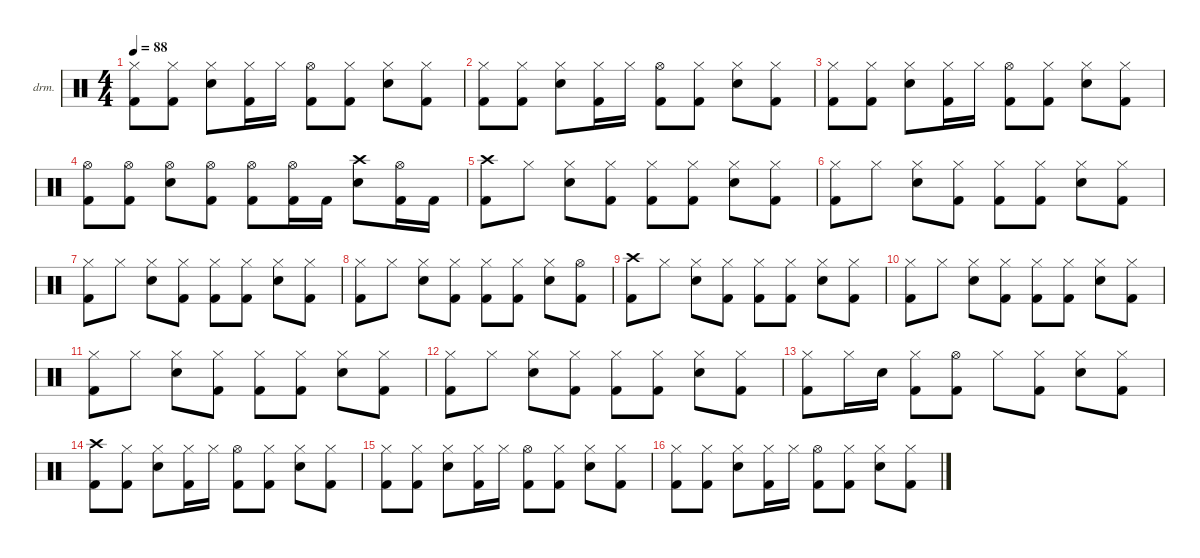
\defaultSystemsLayout 4
\hideDynamics
\bracketExtendMode nobrackets
\firstSystemTrackNameOrientation horizontal
\otherSystemsTrackNameOrientation horizontal
\track ("Drums" "drm.") {instrument percussion}
\staff {score}
\articulation defaults
\ts (4 4)
\tempo 88
\clef neutral
\ks c
("Hi-Hat (closed)" "Kick (hit) 2").8{dy f} ("Hi-Hat (closed)" "Kick (hit) 2").8 ("Hi-Hat (closed)" "Snare (hit) 2").8 ("Hi-Hat (closed)" "Kick (hit) 2").16 "Hi-Hat (closed)".16 ("Hi-Hat (open)" "Kick (hit) 2").8 ("Hi-Hat (closed)" "Kick (hit) 2").8 ("Hi-Hat (closed)" "Snare (hit) 2").8 ("Hi-Hat (closed)" "Kick (hit) 2").8 |
("Hi-Hat (closed)" "Kick (hit) 2").8 ("Hi-Hat (closed)" "Kick (hit) 2").8 ("Hi-Hat (closed)" "Snare (hit) 2").8 ("Hi-Hat (closed)" "Kick (hit) 2").16 "Hi-Hat (closed)".16 ("Hi-Hat (open)" "Kick (hit) 2").8 ("Hi-Hat (closed)" "Kick (hit) 2").8 ("Hi-Hat (closed)" "Snare (hit) 2").8 ("Hi-Hat (closed)" "Kick (hit) 2").8 |
("Hi-Hat (closed)" "Kick (hit) 2").8 ("Hi-Hat (closed)" "Kick (hit) 2").8 ("Hi-Hat (closed)" "Snare (hit) 2").8 ("Hi-Hat (closed)" "Kick (hit) 2").16 "Hi-Hat (closed)".16 ("Hi-Hat (open)" "Kick (hit) 2").8 ("Hi-Hat (closed)" "Kick (hit) 2").8 ("Hi-Hat (closed)" "Snare (hit) 2").8 ("Hi-Hat (closed)" "Kick (hit) 2").8 |
("Hi-Hat (open)" "Kick (hit) 2").8 ("Hi-Hat (open)" "Kick (hit) 2").8 ("Hi-Hat (open)" "Snare (hit) 2").8 ("Hi-Hat (open)" "Kick (hit) 2").8 ("Hi-Hat (open)" "Kick (hit) 2").8 ("Hi-Hat (open)" "Kick (hit) 2").16 "Kick (hit) 2".16 ("Crash high (hit)" "Snare (hit) 2").8 ("Hi-Hat (open)" "Kick (hit) 2").16 "Kick (hit) 2".16 |
("Crash high (hit)" "Kick (hit) 2").8 "Hi-Hat (closed)".8 ("Hi-Hat (closed)" "Snare (hit) 2").8 ("Hi-Hat (closed)" "Kick (hit) 2").8 ("Hi-Hat (closed)" "Kick (hit) 2").8 ("Hi-Hat (closed)" "Kick (hit) 2").8 ("Hi-Hat (closed)" "Snare (hit) 2").8 ("Hi-Hat (closed)" "Kick (hit) 2").8 |
("Hi-Hat (closed)" "Kick (hit) 2").8 "Hi-Hat (closed)".8 ("Hi-Hat (closed)" "Snare (hit) 2").8 ("Hi-Hat (closed)" "Kick (hit) 2").8 ("Hi-Hat (closed)" "Kick (hit) 2").8 ("Hi-Hat (closed)" "Kick (hit) 2").8 ("Hi-Hat (closed)" "Snare (hit) 2").8 ("Hi-Hat (closed)" "Kick (hit) 2").8 |
("Hi-Hat (closed)" "Kick (hit) 2").8 "Hi-Hat (closed)".8 ("Hi-Hat (closed)" "Snare (hit) 2").8 ("Hi-Hat (closed)" "Kick (hit) 2").8 ("Hi-Hat (closed)" "Kick (hit) 2").8 ("Hi-Hat (closed)" "Kick (hit) 2").8 ("Hi-Hat (closed)" "Snare (hit) 2").8 ("Hi-Hat (closed)" "Kick (hit) 2").8 |
("Hi-Hat (closed)" "Kick (hit) 2").8 "Hi-Hat (closed)".8 ("Hi-Hat (closed)" "Snare (hit) 2").8 ("Hi-Hat (closed)" "Kick (hit) 2").8 ("Hi-Hat (closed)" "Kick (hit) 2").8 ("Hi-Hat (closed)" "Kick (hit) 2").8 ("Hi-Hat (closed)" "Snare (hit) 2").8 ("Hi-Hat (open)" "Kick (hit) 2").8 |
("Crash high (hit)" "Kick (hit) 2").8 "Hi-Hat (closed)".8 ("Hi-Hat (closed)" "Snare (hit) 2").8 ("Hi-Hat (closed)" "Kick (hit) 2").8 ("Hi-Hat (closed)" "Kick (hit) 2").8 ("Hi-Hat (closed)" "Kick (hit) 2").8 ("Hi-Hat (closed)" "Snare (hit) 2").8 ("Hi-Hat (closed)" "Kick (hit) 2").8 |
("Hi-Hat (closed)" "Kick (hit) 2").8 "Hi-Hat (closed)".8 ("Hi-Hat (closed)" "Snare (hit) 2").8 ("Hi-Hat (closed)" "Kick (hit) 2").8 ("Hi-Hat (closed)" "Kick (hit) 2").8 ("Hi-Hat (closed)" "Kick (hit) 2").8 ("Hi-Hat (closed)" "Snare (hit) 2").8 ("Hi-Hat (closed)" "Kick (hit) 2").8 |
("Hi-Hat (closed)" "Kick (hit) 2").8 "Hi-Hat (closed)".8 ("Hi-Hat (closed)" "Snare (hit) 2").8 ("Hi-Hat (closed)" "Kick (hit) 2").8 ("Hi-Hat (closed)" "Kick (hit) 2").8 ("Hi-Hat (closed)" "Kick (hit) 2").8 ("Hi-Hat (closed)" "Snare (hit) 2").8 ("Hi-Hat (closed)" "Kick (hit) 2").8 |
("Hi-Hat (closed)" "Kick (hit) 2").8 "Hi-Hat (closed)".8 ("Hi-Hat (closed)" "Snare (hit) 2").8 ("Hi-Hat (closed)" "Kick (hit) 2").8 ("Hi-Hat (closed)" "Kick (hit) 2").8 ("Hi-Hat (closed)" "Kick (hit) 2").8 ("Hi-Hat (closed)" "Snare (hit) 2").8 ("Hi-Hat (closed)" "Kick (hit) 2").8 |
("Hi-Hat (closed)" "Kick (hit) 2").8 "Hi-Hat (closed)".16 "Snare (hit) 2".16 ("Hi-Hat (closed)" "Kick (hit) 2").8 ("Hi-Hat (open)" "Kick (hit) 2").8 "Hi-Hat (closed)".8 ("Hi-Hat (closed)" "Kick (hit) 2").8 ("Hi-Hat (closed)" "Snare (hit) 2").8 ("Hi-Hat (closed)" "Kick (hit) 2").8 |
("Crash high (hit)" "Kick (hit) 2").8 ("Hi-Hat (closed)" "Kick (hit) 2").8 ("Hi-Hat (closed)" "Snare (hit) 2").8 ("Hi-Hat (closed)" "Kick (hit) 2").16 "Hi-Hat (closed)".16 ("Hi-Hat (open)" "Kick (hit) 2").8 ("Hi-Hat (closed)" "Kick (hit) 2").8 ("Hi-Hat (closed)" "Snare (hit) 2").8 ("Hi-Hat (closed)" "Kick (hit) 2").8 |
("Hi-Hat (closed)" "Kick (hit) 2").8 ("Hi-Hat (closed)" "Kick (hit) 2").8 ("Hi-Hat (closed)" "Snare (hit) 2").8 ("Hi-Hat (closed)" "Kick (hit) 2").16 "Hi-Hat (closed)".16 ("Hi-Hat (open)" "Kick (hit) 2").8 ("Hi-Hat (closed)" "Kick (hit) 2").8 ("Hi-Hat (closed)" "Snare (hit) 2").8 ("Hi-Hat (closed)" "Kick (hit) 2").8 |
("Hi-Hat (closed)" "Kick (hit) 2").8 ("Hi-Hat (closed)" "Kick (hit) 2").8 ("Hi-Hat (closed)" "Snare (hit) 2").8 ("Hi-Hat (closed)" "Kick (hit) 2").16 "Hi-Hat (closed)".16 ("Hi-Hat (open)" "Kick (hit) 2").8 ("Hi-Hat (closed)" "Kick (hit) 2").8 ("Hi-Hat (closed)" "Snare (hit) 2").8 ("Hi-Hat (closed)" "Kick (hit) 2").8
